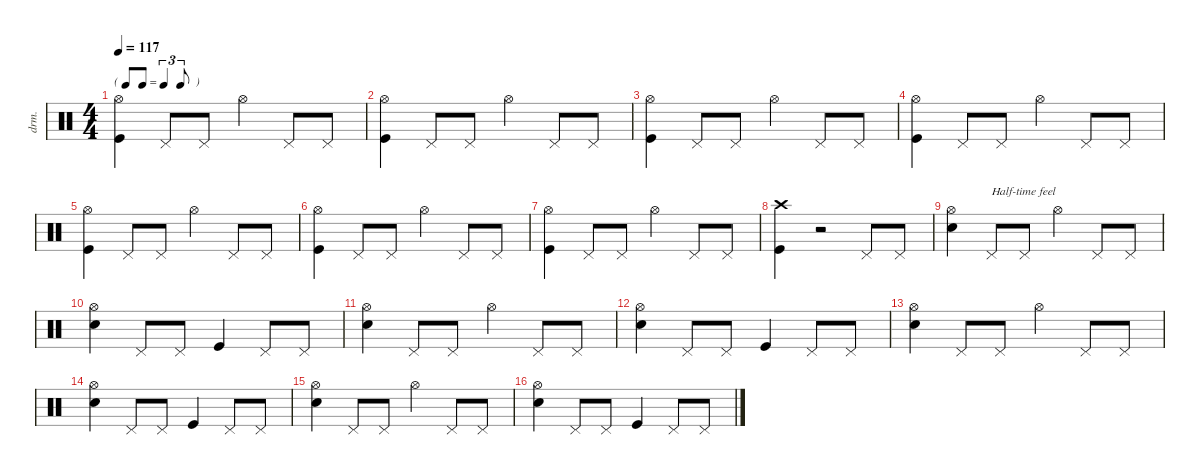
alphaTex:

\defaultSystemsLayout 4
\hideDynamics
\bracketExtendMode nobrackets
\otherSystemsTrackNameOrientation horizontal
\track ("Percussions" "drm.") {instrument percussion}
\staff {score}
\articulation defaults
\ts (4 4)
\tf triplet8th
\tempo 117
\clef neutral
\ks c
("Hi-Hat (open)" "Kick (hit)").4{dy f} "Pedal Hi-Hat (hit)".8 "Pedal Hi-Hat (hit)".8 "Hi-Hat (open)".4 "Pedal Hi-Hat (hit)".8 "Pedal Hi-Hat (hit)".8 |
("Hi-Hat (open)" "Kick (hit)").4 "Pedal Hi-Hat (hit)".8 "Pedal Hi-Hat (hit)".8 "Hi-Hat (open)".4 "Pedal Hi-Hat (hit)".8 "Pedal Hi-Hat (hit)".8 |
("Hi-Hat (open)" "Kick (hit)").4 "Pedal Hi-Hat (hit)".8 "Pedal Hi-Hat (hit)".8 "Hi-Hat (open)".4 "Pedal Hi-Hat (hit)".8 "Pedal Hi-Hat (hit)".8 |
("Hi-Hat (open)" "Kick (hit)").4 "Pedal Hi-Hat (hit)".8 "Pedal Hi-Hat (hit)".8 "Hi-Hat (open)".4 "Pedal Hi-Hat (hit)".8 "Pedal Hi-Hat (hit)".8 |
("Hi-Hat (open)" "Kick (hit)").4 "Pedal Hi-Hat (hit)".8 "Pedal Hi-Hat (hit)".8 "Hi-Hat (open)".4 "Pedal Hi-Hat (hit)".8 "Pedal Hi-Hat (hit)".8 |
("Hi-Hat (open)" "Kick (hit)").4 "Pedal Hi-Hat (hit)".8 "Pedal Hi-Hat (hit)".8 "Hi-Hat (open)".4 "Pedal Hi-Hat (hit)".8 "Pedal Hi-Hat (hit)".8 |
("Hi-Hat (open)" "Kick (hit)").4 "Pedal Hi-Hat (hit)".8 "Pedal Hi-Hat (hit)".8 "Hi-Hat (open)".4 "Pedal Hi-Hat (hit)".8 "Pedal Hi-Hat (hit)".8 |
("Crash high (hit)" "Kick (hit)").4 r.2 "Pedal Hi-Hat (hit)".8 "Pedal Hi-Hat (hit)".8 |
("Hi-Hat (open)" "Snare (hit) 2").4 "Pedal Hi-Hat (hit)".8{txt "Half-time feel"} "Pedal Hi-Hat (hit)".8 "Hi-Hat (open)".4 "Pedal Hi-Hat (hit)".8 "Pedal Hi-Hat (hit)".8 |
("Hi-Hat (open)" "Snare (hit) 2").4 "Pedal Hi-Hat (hit)".8 "Pedal Hi-Hat (hit)".8 "Kick (hit)".4 "Pedal Hi-Hat (hit)".8 "Pedal Hi-Hat (hit)".8 |
("Hi-Hat (open)" "Snare (hit) 2").4 "Pedal Hi-Hat (hit)".8 "Pedal Hi-Hat (hit)".8 "Hi-Hat (open)".4 "Pedal Hi-Hat (hit)".8 "Pedal Hi-Hat (hit)".8 |
("Hi-Hat (open)" "Snare (hit) 2").4 "Pedal Hi-Hat (hit)".8 "Pedal Hi-Hat (hit)".8 "Kick (hit)".4 "Pedal Hi-Hat (hit)".8 "Pedal Hi-Hat (hit)".8 |
("Hi-Hat (open)" "Snare (hit) 2").4 "Pedal Hi-Hat (hit)".8 "Pedal Hi-Hat (hit)".8 "Hi-Hat (open)".4 "Pedal Hi-Hat (hit)".8 "Pedal Hi-Hat (hit)".8 |
("Hi-Hat (open)" "Snare (hit) 2").4 "Pedal Hi-Hat (hit)".8 "Pedal Hi-Hat (hit)".8 "Kick (hit)".4 "Pedal Hi-Hat (hit)".8 "Pedal Hi-Hat (hit)".8 |
("Hi-Hat (open)" "Snare (hit) 2").4 "Pedal Hi-Hat (hit)".8 "Pedal Hi-Hat (hit)".8 "Hi-Hat (open)".4 "Pedal Hi-Hat (hit)".8 "Pedal Hi-Hat (hit)".8 |
("Hi-Hat (open)" "Snare (hit) 2").4 "Pedal Hi-Hat (hit)".8 "Pedal Hi-Hat (hit)".8 "Kick (hit)".4 "Pedal Hi-Hat (hit)".8 "Pedal Hi-Hat (hit)".8
